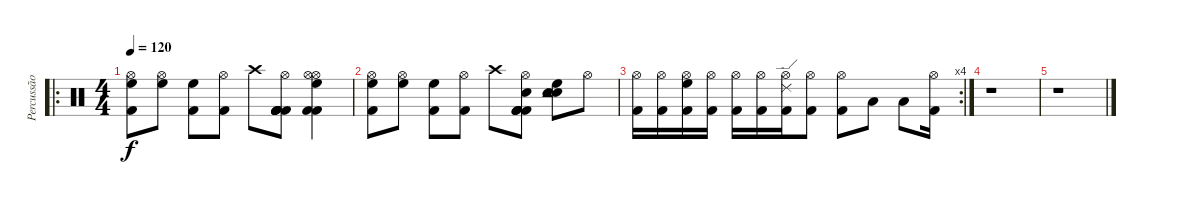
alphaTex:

\track ("Percussão" "Percussão") {instrument percussion}
\staff {score}
\articulation defaults
\ro
\ts (4 4)
\tempo 120
\clef neutral
\ks c
("Kick (hit) 2" "Hi-Hat (open)" "High Floor Tom (hit)").8{dy f} ("Hi-Hat (open)" "High Floor Tom (hit)").8 ("Kick (hit) 2" "High Floor Tom (hit)").8 ("Kick (hit) 2" "Hi-Hat (open)").8 "Crash high (hit)".8 ("Kick (hit) 2" "Kick (hit) 2" "Kick (hit) 2" "Hi-Hat (open)" "Kick (hit) 2" "Kick (hit) 2").8 ("High Floor Tom (hit)" "Kick (hit) 2" "Kick (hit) 2" "Hi-Hat (open)" "Hi-Hat (open)").4 |
("Kick (hit) 2" "Hi-Hat (open)" "High Floor Tom (hit)").8 ("Hi-Hat (open)" "High Floor Tom (hit)").8 ("Kick (hit) 2" "High Floor Tom (hit)").8 ("Kick (hit) 2" "Hi-Hat (open)").8 "Crash high (hit)".8 ("Kick (hit) 2" "Kick (hit) 2" "Snare (hit)" "Hi-Hat (open)" "Kick (hit) 2" "Kick (hit) 2").8 ("High Floor Tom (hit)" "Snare (hit)" "Snare (hit)" "Tambourine (hit)" "Tambourine (hit)").8 "Hi-Hat (open)".8 |
\rc 4
("Hi-Hat (open)" "Kick (hit) 2").16 ("Hi-Hat (open)" "Kick (hit) 2").16 ("High Floor Tom (hit)" "Hi-Hat (open)" "Kick (hit) 2").16 ("Hi-Hat (open)" "Kick (hit) 2").16 ("Hi-Hat (open)" "Kick (hit) 2").16 ("Hi-Hat (open)" "Kick (hit) 2").16 ("Ride (edge) 2" "Hi-Hat (open)" "Kick (hit) 2").16 ("Hi-Hat (open)" "Kick (hit) 2").8 ("Hi-Hat (open)" "Kick (hit) 2").8 "Low Tom (hit)".8 "Low Tom (hit)".8 ("Kick (hit) 2" "Hi-Hat (open)").16 |
r.1 |
r.1
